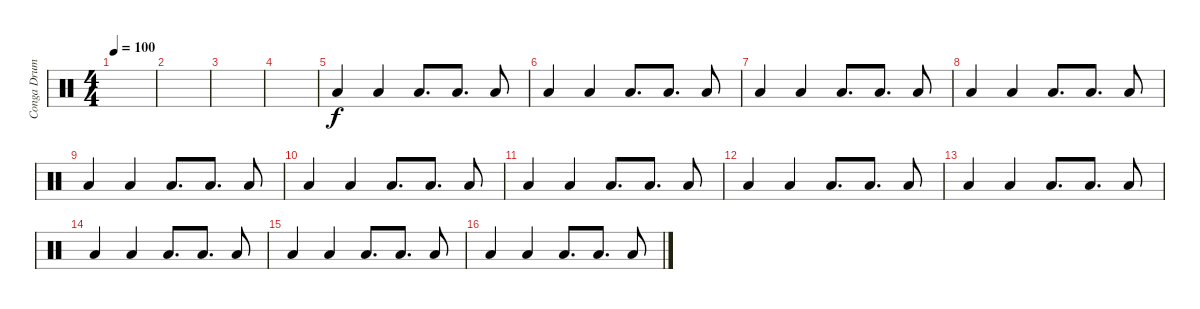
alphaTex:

\track ("Conga Drum" "Conga Drum") {instrument percussion}
\staff {score}
\articulation defaults
\ts (4 4)
\tempo 100
\clef neutral
\ks c
|
|
|
|
"Low Floor Tom (hit)".4 "Low Floor Tom (hit)".4 "Low Floor Tom (hit)".8{d} "Low Floor Tom (hit)".8{d} "Low Floor Tom (hit)".8 |
"Low Floor Tom (hit)".4 "Low Floor Tom (hit)".4 "Low Floor Tom (hit)".8{d} "Low Floor Tom (hit)".8{d} "Low Floor Tom (hit)".8 |
"Low Floor Tom (hit)".4 "Low Floor Tom (hit)".4 "Low Floor Tom (hit)".8{d} "Low Floor Tom (hit)".8{d} "Low Floor Tom (hit)".8 |
"Low Floor Tom (hit)".4 "Low Floor Tom (hit)".4 "Low Floor Tom (hit)".8{d} "Low Floor Tom (hit)".8{d} "Low Floor Tom (hit)".8 |
"Low Floor Tom (hit)".4 "Low Floor Tom (hit)".4 "Low Floor Tom (hit)".8{d} "Low Floor Tom (hit)".8{d} "Low Floor Tom (hit)".8 |
"Low Floor Tom (hit)".4 "Low Floor Tom (hit)".4 "Low Floor Tom (hit)".8{d} "Low Floor Tom (hit)".8{d} "Low Floor Tom (hit)".8 |
"Low Floor Tom (hit)".4 "Low Floor Tom (hit)".4 "Low Floor Tom (hit)".8{d} "Low Floor Tom (hit)".8{d} "Low Floor Tom (hit)".8 |
"Low Floor Tom (hit)".4 "Low Floor Tom (hit)".4 "Low Floor Tom (hit)".8{d} "Low Floor Tom (hit)".8{d} "Low Floor Tom (hit)".8 |
"Low Floor Tom (hit)".4 "Low Floor Tom (hit)".4 "Low Floor Tom (hit)".8{d} "Low Floor Tom (hit)".8{d} "Low Floor Tom (hit)".8 |
"Low Floor Tom (hit)".4 "Low Floor Tom (hit)".4 "Low Floor Tom (hit)".8{d} "Low Floor Tom (hit)".8{d} "Low Floor Tom (hit)".8 |
"Low Floor Tom (hit)".4 "Low Floor Tom (hit)".4 "Low Floor Tom (hit)".8{d} "Low Floor Tom (hit)".8{d} "Low Floor Tom (hit)".8 |
"Low Floor Tom (hit)".4 "Low Floor Tom (hit)".4 "Low Floor Tom (hit)".8{d} "Low Floor Tom (hit)".8{d} "Low Floor Tom (hit)".8
